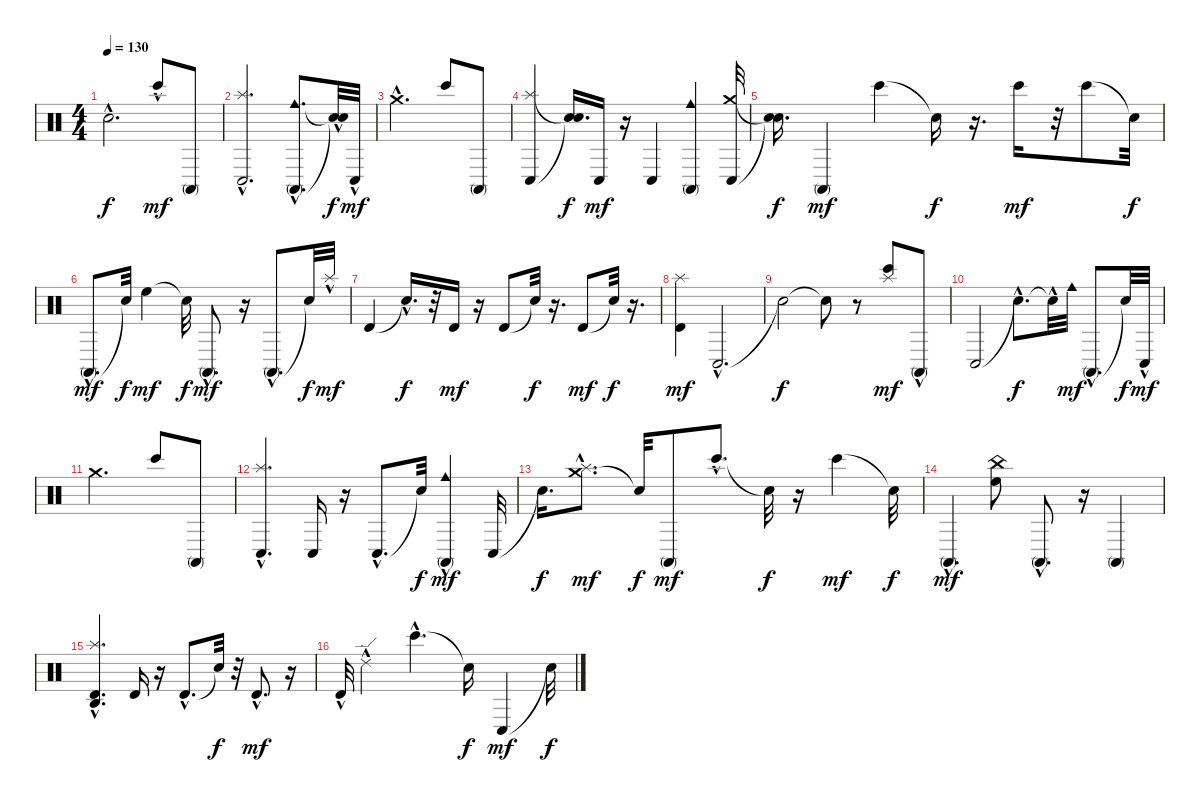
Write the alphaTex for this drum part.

\track "" {instrument percussion}
\staff {score}
\articulation defaults
\ts (4 4)
\tempo 130
\clef neutral
\ks c "Snare (hit)"{hac t}.2{d dy f} "Bongo High (hit)"{hac}.8{dy mf} "Conga high (mute)".8
|
("Splash (hit)"{hac} "Conga low (hit)"{hac}).2{d} ("Cowbell medium (hit)"{hac} "Conga high (mute)"{hac}).8{d} ("Snare (hit)"{hac t} "Snare (hit)"{t}).32{dy f} "Conga low (hit)"{hac}.32{dy mf} |
"Crash medium (hit)"{hac}.2{d} "Bongo High (hit)".8 "Conga high (mute)".8 |
("Splash (hit)" "Conga low (hit)").4 ("Snare (hit)"{t} "Snare (hit)"{t}).16{d dy f} "Conga low (hit)".16{dy mf} r.16 "Conga low (hit)".4 ("Cowbell medium (hit)" "Conga high (mute)").4 ("Conga low (hit)" "Crash medium (hit)").32 |
("Snare (hit)"{t} "Snare (hit)"{t}).16{d dy f} "Conga high (mute)".4{dy mf} "Bongo High (hit)".4 "Snare (hit)"{t}.16{dy f} r.16{d} "Bongo High (hit)".16{dy mf} r.32 "Bongo High (hit)".8 "Snare (hit)"{t}.32{dy f} |
"Conga high (mute)"{hac}.8{d dy mf} "Snare (hit)"{t}.32{dy f} "High Floor Tom (hit)".4{dy mf} "Snare (hit)"{t}.32{dy f} "Conga high (mute)"{hac}.8{d dy mf} r.16 "Conga high (mute)"{hac}.8{d} "Snare (hit)"{t}.32{dy f} "Splash (hit)"{hac}.32{dy mf} |
"Timbale high (hit)".4 "Snare (hit)"{hac t}.16{d dy f} r.32 "Timbale high (hit)".16{dy mf} r.16 "Timbale high (hit)".8 "Snare (hit)"{t}.32{dy f} r.16{d} "Timbale high (hit)".8{dy mf} "Snare (hit)"{t}.32{dy f} r.16{d} |
("Splash (hit)" "Timbale high (hit)").4{dy mf} "Conga low (hit)"{hac}.2{d} |
"Snare (hit)"{t}.2{dy f} "Snare (hit)"{t}.8 r.8 ("Splash (hit)" "Bongo High (hit)").8{dy mf} "Conga high (mute)"{hac}.8 |
"Conga low (hit)".2 "Snare (hit)"{hac t}.8{d dy f} "Snare (hit)"{hac t}.32 "Cowbell medium (hit)".32{dy mf} "Conga high (mute)"{hac}.8{d} "Snare (hit)"{t}.32{dy f} "Conga low (hit)"{hac}.32{dy mf} |
"Crash medium (hit)".2{d} "Bongo High (hit)".8 "Conga high (mute)".8 |
("Splash (hit)"{hac} "Conga low (hit)").4{d} "Conga low (hit)".16 r.16 "Conga low (hit)"{hac}.8{d} "Snare (hit)"{t}.32{dy f} ("Cowbell medium (hit)"{hac} "Conga high (mute)"{hac}).4{dy mf} "Conga low (hit)".32 |
"Snare (hit)"{t}.16{d dy f} ("Crash medium (hit)"{hac} "Splash (hit)").8{d dy mf} "Snare (hit)"{t}.32{dy f} "Conga high (mute)".8{dy mf} "Bongo High (hit)"{hac}.8{d} "Snare (hit)"{t}.32{dy f} r.16 "Bongo High (hit)".4{dy mf} "Snare (hit)"{t}.32{dy f} |
"Conga high (mute)"{hac}.4{d dy mf} ("High Floor Tom (hit)" "China (hit)").8 "Conga high (mute)"{hac}.8{d} r.16 "Conga high (mute)".4 |
("Splash (hit)" "Timbale high (hit)" "Agogo high (hit)"{hac}).4{d} "Timbale high (hit)".16 r.16 "Timbale high (hit)"{hac}.8{d} "Snare (hit)"{t}.32{dy f} r.32 "Timbale high (hit)"{hac}.8{d dy mf} r.16 |
"Timbale high (hit)"{hac}.32 "Ride (edge) 2"{hac}.4 "Bongo High (hit)"{hac}.4{d} "Snare (hit)"{t}.16{dy f} "Conga low (hit)".4{dy mf} "Snare (hit)"{t}.32{dy f}
